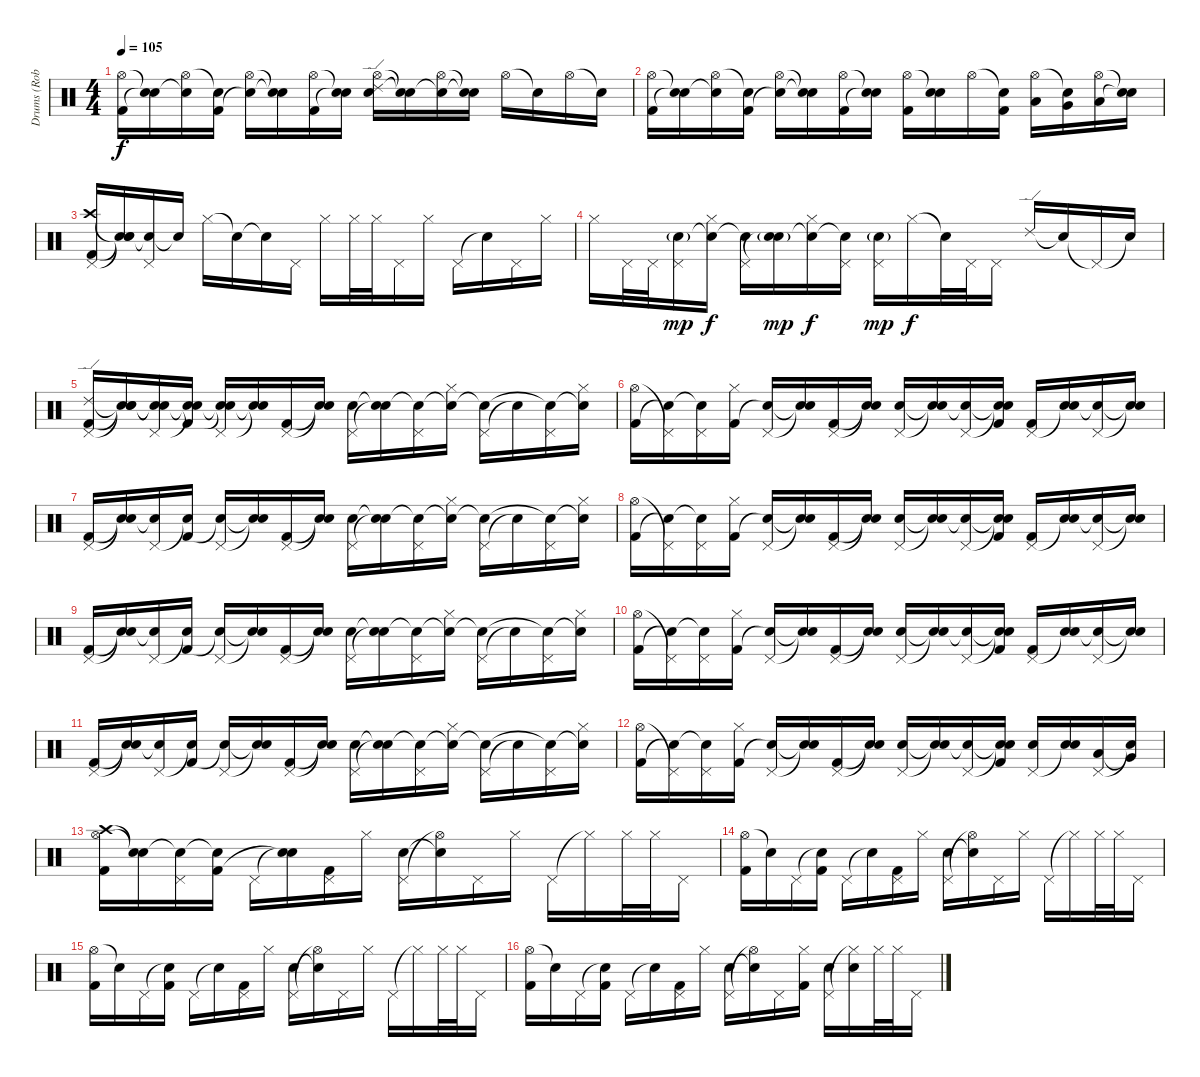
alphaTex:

\track ("Drums (Rob Bourdon)" "Drums (Rob") {instrument percussion}
\staff {score}
\articulation defaults
\ts (4 4)
\tempo 105
\clef neutral
\ks c
("Hi-Hat (open)" "Kick (hit) 2").16{dy f} ("Snare (hit)"{t} "Snare (hit)"{t}).16 ("Hi-Hat (open)" "Snare (hit)"{t}).16 ("Snare (hit)"{t} "Kick (hit) 2").16 ("Hi-Hat (open)" "Snare (hit)"{t}).16 ("Snare (hit)"{t} "Snare (hit)"{t}).16 ("Hi-Hat (open)" "Kick (hit) 2").16 ("Snare (hit)"{t} "Snare (hit)"{t}).16 ("Ride (edge) 2" "Hi-Hat (open)" "Electric Snare (hit)").16 ("Snare (hit)"{t} "Snare (hit)"{t}).16 ("Hi-Hat (open)" "Snare (hit)"{t}).16 ("Snare (hit)"{t} "Snare (hit)"{t}).16 "Hi-Hat (open)".16 "Snare (hit)"{t}.16 "Hi-Hat (open)".16 "Snare (hit)"{t}.16 |
("Hi-Hat (open)" "Kick (hit) 2").16 ("Snare (hit)"{t} "Snare (hit)"{t}).16 ("Hi-Hat (open)" "Snare (hit)"{t}).16 ("Snare (hit)"{t} "Kick (hit) 2").16 ("Hi-Hat (open)" "Snare (hit)"{t}).16 ("Snare (hit)"{t} "Snare (hit)"{t}).16 ("Hi-Hat (open)" "Kick (hit) 2").16 ("Snare (hit)"{t} "Snare (hit)"{t}).16 ("Hi-Hat (open)" "Kick (hit) 2").16 ("Snare (hit)"{t} "Electric Snare (hit)").16 "Hi-Hat (open)".16 ("Snare (hit)"{t} "Kick (hit) 2").16 ("Hi-Hat (open)" "Low Tom (hit)").16 ("Snare (hit)"{t} "Very Low Tom (hit)").16 ("Hi-Hat (open)" "Low Floor Tom (hit)").16 ("Snare (hit)"{t} "Snare (hit)"{t}).16 |
("Crash high (hit)" "Pedal Hi-Hat (hit)" "Kick (hit) 2").16 ("Snare (hit)"{t} "Snare (hit)"{t} "Snare (hit)"{t}).16 ("Snare (hit)"{t} "Pedal Hi-Hat (hit)").16 "Snare (hit)"{t}.16 "Hi-Hat (closed)".16 "Snare (hit)"{t}.16 "Snare (hit)"{t}.16 "Pedal Hi-Hat (hit)".16 "Hi-Hat (closed)".16 "Hi-Hat (closed)".32 "Hi-Hat (closed)".32 "Pedal Hi-Hat (hit)".16 "Hi-Hat (closed)".16 "Pedal Hi-Hat (hit)".16 "Snare (hit)"{t}.16 "Pedal Hi-Hat (hit)".16 "Hi-Hat (closed)".16 |
"Hi-Hat (closed)".16 "Pedal Hi-Hat (hit)".32 "Pedal Hi-Hat (hit)".32 ("Pedal Hi-Hat (hit)" "Metronome (bell)"{g}).16{dy mp} ("Hi-Hat (closed)" "Snare (hit)"{t}).16{dy f} ("Pedal Hi-Hat (hit)" "Snare (hit)"{t}).16 ("Snare (hit)"{t} "Metronome (bell)"{g}).16{dy mp} ("Hi-Hat (closed)" "Snare (hit)"{t}).16{dy f} ("Pedal Hi-Hat (hit)" "Snare (hit)"{t}).16 ("Pedal Hi-Hat (hit)" "Metronome (bell)"{g}).16{dy mp} "Hi-Hat (closed)".16{dy f} "Snare (hit)"{t}.32 "Pedal Hi-Hat (hit)".32 "Pedal Hi-Hat (hit)".16 "Ride (edge) 2".16 "Snare (hit)"{t}.16 "Pedal Hi-Hat (hit)"{t}.16 "Snare (hit)"{t}.16 |
("Ride (edge) 2" "Pedal Hi-Hat (hit)" "Kick (hit) 2").16 ("Snare (hit)"{t} "Snare (hit)"{t} "Snare (hit)"{t}).16 ("Snare (hit)"{t} "Pedal Hi-Hat (hit)" "Snare (hit)"{t}).16 ("Snare (hit)"{t} "Snare (hit)"{t} "Kick (hit) 2").16 ("Snare (hit)"{t} "Pedal Hi-Hat (hit)" "Snare (hit)"{t}).16 ("Snare (hit)"{t} "Snare (hit)"{t}).16 ("Pedal Hi-Hat (hit)" "Kick (hit) 2").16 ("Snare (hit)"{t} "Snare (hit)"{t}).16 ("Pedal Hi-Hat (hit)" "Electric Snare (hit)").16 ("Snare (hit)"{t} "Snare (hit)"{t}).16 ("Pedal Hi-Hat (hit)" "Snare (hit)"{t}).16 ("Hi-Hat (closed)" "Snare (hit)"{t}).16 ("Pedal Hi-Hat (hit)" "Snare (hit)"{t}).16 "Snare (hit)"{t}.16 ("Pedal Hi-Hat (hit)" "Snare (hit)"{t}).16 ("Hi-Hat (closed)" "Snare (hit)"{t}).16 |
("Hi-Hat (open)" "Kick (hit) 2").16 ("Pedal Hi-Hat (hit)"{t} "Snare (hit)"{t}).16 ("Pedal Hi-Hat (hit)" "Snare (hit)"{t}).16 ("Hi-Hat (closed)" "Kick (hit) 2").16 ("Pedal Hi-Hat (hit)" "Snare (hit)"{t}).16 ("Snare (hit)"{t} "Snare (hit)"{t}).16 ("Pedal Hi-Hat (hit)" "Kick (hit) 2").16 ("Snare (hit)"{t} "Snare (hit)"{t}).16 ("Pedal Hi-Hat (hit)" "Electric Snare (hit)").16 ("Snare (hit)"{t} "Snare (hit)"{t}).16 ("Pedal Hi-Hat (hit)" "Snare (hit)"{t}).16 ("Snare (hit)"{t} "Snare (hit)"{t} "Kick (hit) 2").16 ("Pedal Hi-Hat (hit)" "Kick (hit) 2").16 ("Snare (hit)"{t} "Electric Snare (hit)").16 ("Pedal Hi-Hat (hit)" "Electric Snare (hit)"{t}).16 ("Snare (hit)"{t} "Snare (hit)"{t}).16 |
("Pedal Hi-Hat (hit)" "Kick (hit) 2").16 ("Snare (hit)"{t} "Snare (hit)"{t}).16 ("Pedal Hi-Hat (hit)" "Snare (hit)"{t}).16 ("Snare (hit)"{t} "Kick (hit) 2").16 ("Pedal Hi-Hat (hit)" "Snare (hit)"{t}).16 ("Snare (hit)"{t} "Snare (hit)"{t}).16 ("Pedal Hi-Hat (hit)" "Kick (hit) 2").16 ("Snare (hit)"{t} "Snare (hit)"{t}).16 ("Pedal Hi-Hat (hit)" "Electric Snare (hit)").16 ("Snare (hit)"{t} "Snare (hit)"{t}).16 ("Pedal Hi-Hat (hit)" "Snare (hit)"{t}).16 ("Hi-Hat (closed)" "Snare (hit)"{t}).16 ("Pedal Hi-Hat (hit)" "Snare (hit)"{t}).16 "Snare (hit)"{t}.16 ("Pedal Hi-Hat (hit)" "Snare (hit)"{t}).16 ("Hi-Hat (closed)" "Snare (hit)"{t}).16 |
("Hi-Hat (open)" "Kick (hit) 2").16 ("Pedal Hi-Hat (hit)"{t} "Snare (hit)"{t}).16 ("Pedal Hi-Hat (hit)" "Snare (hit)"{t}).16 ("Hi-Hat (closed)" "Kick (hit) 2").16 ("Pedal Hi-Hat (hit)" "Snare (hit)"{t}).16 ("Snare (hit)"{t} "Snare (hit)"{t}).16 ("Pedal Hi-Hat (hit)" "Kick (hit) 2").16 ("Snare (hit)"{t} "Snare (hit)"{t}).16 ("Pedal Hi-Hat (hit)" "Electric Snare (hit)").16 ("Snare (hit)"{t} "Snare (hit)"{t}).16 ("Pedal Hi-Hat (hit)" "Snare (hit)"{t}).16 ("Snare (hit)"{t} "Snare (hit)"{t} "Kick (hit) 2").16 ("Pedal Hi-Hat (hit)" "Kick (hit) 2").16 ("Snare (hit)"{t} "Electric Snare (hit)").16 ("Pedal Hi-Hat (hit)" "Snare (hit)"{t}).16 ("Snare (hit)"{t} "Snare (hit)"{t}).16 |
("Pedal Hi-Hat (hit)" "Kick (hit) 2").16 ("Snare (hit)"{t} "Snare (hit)"{t}).16 ("Pedal Hi-Hat (hit)" "Snare (hit)"{t}).16 ("Snare (hit)"{t} "Kick (hit) 2").16 ("Pedal Hi-Hat (hit)" "Snare (hit)"{t}).16 ("Snare (hit)"{t} "Snare (hit)"{t}).16 ("Pedal Hi-Hat (hit)" "Kick (hit) 2").16 ("Snare (hit)"{t} "Snare (hit)"{t}).16 ("Pedal Hi-Hat (hit)" "Electric Snare (hit)").16 ("Snare (hit)"{t} "Snare (hit)"{t}).16 ("Pedal Hi-Hat (hit)" "Snare (hit)"{t}).16 ("Hi-Hat (closed)" "Snare (hit)"{t}).16 ("Pedal Hi-Hat (hit)" "Snare (hit)"{t}).16 "Snare (hit)"{t}.16 ("Pedal Hi-Hat (hit)" "Snare (hit)"{t}).16 ("Hi-Hat (closed)" "Snare (hit)"{t}).16 |
("Hi-Hat (open)" "Kick (hit) 2").16 ("Pedal Hi-Hat (hit)"{t} "Snare (hit)"{t}).16 ("Pedal Hi-Hat (hit)" "Snare (hit)"{t}).16 ("Hi-Hat (closed)" "Kick (hit) 2").16 ("Pedal Hi-Hat (hit)" "Snare (hit)"{t}).16 ("Snare (hit)"{t} "Snare (hit)"{t}).16 ("Pedal Hi-Hat (hit)" "Kick (hit) 2").16 ("Snare (hit)"{t} "Snare (hit)"{t}).16 ("Pedal Hi-Hat (hit)" "Electric Snare (hit)").16 ("Snare (hit)"{t} "Snare (hit)"{t}).16 ("Pedal Hi-Hat (hit)" "Snare (hit)"{t}).16 ("Snare (hit)"{t} "Snare (hit)"{t} "Kick (hit) 2").16 ("Pedal Hi-Hat (hit)" "Kick (hit) 2").16 ("Snare (hit)"{t} "Electric Snare (hit)").16 ("Pedal Hi-Hat (hit)" "Electric Snare (hit)"{t}).16 ("Snare (hit)"{t} "Snare (hit)"{t}).16 |
("Pedal Hi-Hat (hit)" "Kick (hit) 2").16 ("Snare (hit)"{t} "Snare (hit)"{t}).16 ("Pedal Hi-Hat (hit)" "Snare (hit)"{t}).16 ("Snare (hit)"{t} "Kick (hit) 2").16 ("Pedal Hi-Hat (hit)" "Snare (hit)"{t}).16 ("Snare (hit)"{t} "Snare (hit)"{t}).16 ("Pedal Hi-Hat (hit)" "Kick (hit) 2").16 ("Snare (hit)"{t} "Snare (hit)"{t}).16 ("Pedal Hi-Hat (hit)" "Electric Snare (hit)").16 ("Snare (hit)"{t} "Snare (hit)"{t}).16 ("Pedal Hi-Hat (hit)" "Snare (hit)"{t}).16 ("Hi-Hat (closed)" "Snare (hit)"{t}).16 ("Pedal Hi-Hat (hit)" "Snare (hit)"{t}).16 "Snare (hit)"{t}.16 ("Pedal Hi-Hat (hit)" "Snare (hit)"{t}).16 ("Hi-Hat (closed)" "Snare (hit)"{t}).16 |
("Hi-Hat (open)" "Kick (hit) 2").16 ("Pedal Hi-Hat (hit)"{t} "Snare (hit)"{t}).16 ("Pedal Hi-Hat (hit)" "Snare (hit)"{t}).16 ("Hi-Hat (closed)" "Kick (hit) 2").16 ("Pedal Hi-Hat (hit)" "Snare (hit)"{t}).16 ("Snare (hit)"{t} "Snare (hit)"{t}).16 ("Pedal Hi-Hat (hit)" "Kick (hit) 2").16 ("Snare (hit)"{t} "Snare (hit)"{t}).16 ("Pedal Hi-Hat (hit)" "Electric Snare (hit)").16 ("Snare (hit)"{t} "Snare (hit)"{t}).16 ("Pedal Hi-Hat (hit)" "Snare (hit)"{t}).16 ("Snare (hit)"{t} "Snare (hit)"{t} "Kick (hit) 2").16 ("Pedal Hi-Hat (hit)" "Electric Snare (hit)").16 ("Snare (hit)"{t} "Electric Snare (hit)").16 ("Pedal Hi-Hat (hit)" "Low Tom (hit)").16 ("Snare (hit)"{t} "Very Low Tom (hit)"{t}).16 |
("Crash high (hit)" "Hi-Hat (open)" "Kick (hit) 2").16 ("Snare (hit)"{t} "Snare (hit)"{t}).16 ("Snare (hit)"{t} "Pedal Hi-Hat (hit)").16 ("Snare (hit)"{t} "Kick (hit) 2").16 "Pedal Hi-Hat (hit)".16 ("Snare (hit)"{t} "Snare (hit)"{t}).16 ("Pedal Hi-Hat (hit)" "Kick (hit) 2").16 "Hi-Hat (closed)".16 ("Pedal Hi-Hat (hit)" "Electric Snare (hit)").16 ("Hi-Hat (open)"{t} "Snare (hit)"{t}).16 "Pedal Hi-Hat (hit)".16 "Hi-Hat (closed)".16 "Pedal Hi-Hat (hit)".16 "Hi-Hat (closed)"{t}.16 "Hi-Hat (closed)".32 "Hi-Hat (closed)".32 "Pedal Hi-Hat (hit)".16 |
("Hi-Hat (open)" "Kick (hit) 2").16 "Snare (hit)"{t}.16 "Pedal Hi-Hat (hit)".16 ("Snare (hit)"{t} "Kick (hit) 2").16 "Pedal Hi-Hat (hit)".16 "Snare (hit)"{t}.16 ("Pedal Hi-Hat (hit)" "Kick (hit) 2").16 "Hi-Hat (closed)".16 ("Pedal Hi-Hat (hit)" "Electric Snare (hit)").16 ("Hi-Hat (open)"{t} "Snare (hit)"{t}).16 "Pedal Hi-Hat (hit)".16 "Hi-Hat (closed)".16 "Pedal Hi-Hat (hit)".16 "Hi-Hat (closed)"{t}.16 "Hi-Hat (closed)".32 "Hi-Hat (closed)".32 "Pedal Hi-Hat (hit)".16 |
("Hi-Hat (open)" "Kick (hit) 2").16 "Snare (hit)"{t}.16 "Pedal Hi-Hat (hit)".16 ("Snare (hit)"{t} "Kick (hit) 2").16 "Pedal Hi-Hat (hit)".16 "Snare (hit)"{t}.16 ("Pedal Hi-Hat (hit)" "Kick (hit) 2").16 "Hi-Hat (closed)".16 ("Pedal Hi-Hat (hit)" "Electric Snare (hit)").16 ("Hi-Hat (open)"{t} "Snare (hit)"{t}).16 "Pedal Hi-Hat (hit)".16 "Hi-Hat (closed)".16 "Pedal Hi-Hat (hit)".16 "Hi-Hat (closed)"{t}.16 "Hi-Hat (closed)".32 "Hi-Hat (closed)".32 "Pedal Hi-Hat (hit)".16 |
("Hi-Hat (open)" "Kick (hit) 2").16 "Snare (hit)"{t}.16 "Pedal Hi-Hat (hit)".16 ("Snare (hit)"{t} "Kick (hit) 2").16 "Pedal Hi-Hat (hit)".16 "Snare (hit)"{t}.16 ("Pedal Hi-Hat (hit)" "Kick (hit) 2").16 "Hi-Hat (closed)".16 ("Pedal Hi-Hat (hit)" "Electric Snare (hit)").16 ("Hi-Hat (open)"{t} "Snare (hit)"{t}).16 "Pedal Hi-Hat (hit)".16 ("Hi-Hat (closed)" "Kick (hit) 2").16 ("Pedal Hi-Hat (hit)" "Electric Snare (hit)").16 ("Hi-Hat (closed)"{t} "Electric Snare (hit)").16 "Hi-Hat (closed)".32 "Hi-Hat (closed)".32 "Pedal Hi-Hat (hit)".16
